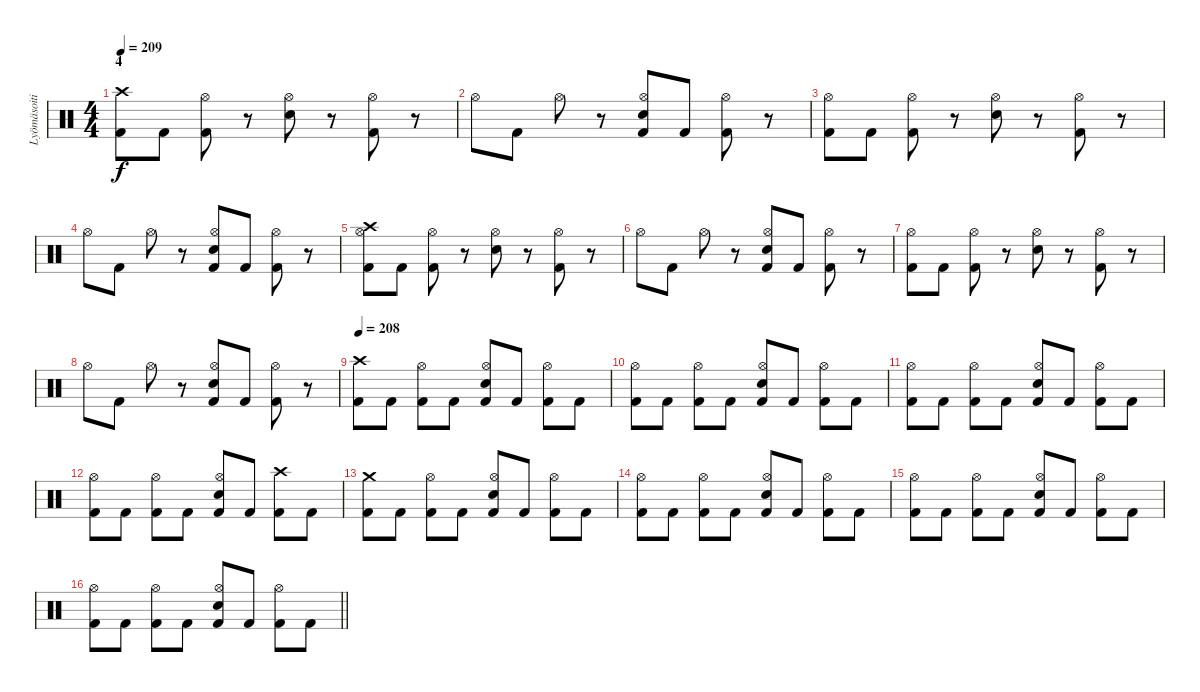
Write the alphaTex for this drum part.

\track ("Lyömäsoitin" "Lyömäsoiti") {instrument percussion}
\staff {score}
\articulation defaults
\ts (4 4)
\section ("" "4")
\tempo 209
\clef neutral
\ks c
("Crash high (hit)" "Kick (hit) 2").8{dy f} "Kick (hit) 2".8 ("Hi-Hat (open)" "Kick (hit) 2").8 r.8 ("Hi-Hat (open)" "Snare (hit) 2").8 r.8 ("Hi-Hat (open)" "Kick (hit) 2").8 r.8 |
"Hi-Hat (open)".8 "Kick (hit) 2".8 "Hi-Hat (open)".8 r.8 ("Hi-Hat (open)" "Snare (hit) 2" "Kick (hit) 2").8 "Kick (hit) 2".8 ("Hi-Hat (open)" "Kick (hit) 2").8 r.8 |
("Hi-Hat (open)" "Kick (hit) 2").8 "Kick (hit) 2".8 ("Hi-Hat (open)" "Kick (hit) 2").8 r.8 ("Hi-Hat (open)" "Snare (hit) 2").8 r.8 ("Hi-Hat (open)" "Kick (hit) 2").8 r.8 |
"Hi-Hat (open)".8 "Kick (hit) 2".8 "Hi-Hat (open)".8 r.8 ("Hi-Hat (open)" "Snare (hit) 2" "Kick (hit) 2").8 "Kick (hit) 2".8 ("Hi-Hat (open)" "Kick (hit) 2").8 r.8 |
("Crash high (hit)" "Hi-Hat (open)" "Kick (hit) 2").8 "Kick (hit) 2".8 ("Hi-Hat (open)" "Kick (hit) 2").8 r.8 ("Hi-Hat (open)" "Snare (hit) 2").8 r.8 ("Hi-Hat (open)" "Kick (hit) 2").8 r.8 |
"Hi-Hat (open)".8 "Kick (hit) 2".8 "Hi-Hat (open)".8 r.8 ("Hi-Hat (open)" "Snare (hit) 2" "Kick (hit) 2").8 "Kick (hit) 2".8 ("Hi-Hat (open)" "Kick (hit) 2").8 r.8 |
("Hi-Hat (open)" "Kick (hit) 2").8 "Kick (hit) 2".8 ("Hi-Hat (open)" "Kick (hit) 2").8 r.8 ("Hi-Hat (open)" "Snare (hit) 2").8 r.8 ("Hi-Hat (open)" "Kick (hit) 2").8 r.8 |
"Hi-Hat (open)".8 "Kick (hit) 2".8 "Hi-Hat (open)".8 r.8 ("Hi-Hat (open)" "Snare (hit) 2" "Kick (hit) 2").8 "Kick (hit) 2".8 ("Hi-Hat (open)" "Kick (hit) 2").8 r.8 |
\tempo 208
("Crash high (hit)" "Kick (hit) 2").8 "Kick (hit) 2".8 ("Hi-Hat (open)" "Kick (hit) 2").8 "Kick (hit) 2".8 ("Hi-Hat (open)" "Snare (hit) 2" "Kick (hit) 2").8 "Kick (hit) 2".8 ("Hi-Hat (open)" "Kick (hit) 2").8 "Kick (hit) 2".8 |
("Hi-Hat (open)" "Kick (hit) 2").8 "Kick (hit) 2".8 ("Hi-Hat (open)" "Kick (hit) 2").8 "Kick (hit) 2".8 ("Hi-Hat (open)" "Snare (hit) 2" "Kick (hit) 2").8 "Kick (hit) 2".8 ("Hi-Hat (open)" "Kick (hit) 2").8 "Kick (hit) 2".8 |
("Hi-Hat (open)" "Kick (hit) 2").8 "Kick (hit) 2".8 ("Hi-Hat (open)" "Kick (hit) 2").8 "Kick (hit) 2".8 ("Hi-Hat (open)" "Snare (hit) 2" "Kick (hit) 2").8 "Kick (hit) 2".8 ("Hi-Hat (open)" "Kick (hit) 2").8 "Kick (hit) 2".8 |
("Hi-Hat (open)" "Kick (hit) 2").8 "Kick (hit) 2".8 ("Hi-Hat (open)" "Kick (hit) 2").8 "Kick (hit) 2".8 ("Hi-Hat (open)" "Snare (hit) 2" "Kick (hit) 2").8 "Kick (hit) 2".8 ("Crash high (hit)" "Kick (hit) 2").8 "Kick (hit) 2".8 |
("Crash medium (hit)" "Kick (hit) 2").8 "Kick (hit) 2".8 ("Hi-Hat (open)" "Kick (hit) 2").8 "Kick (hit) 2".8 ("Hi-Hat (open)" "Snare (hit) 2" "Kick (hit) 2").8 "Kick (hit) 2".8 ("Hi-Hat (open)" "Kick (hit) 2").8 "Kick (hit) 2".8 |
("Hi-Hat (open)" "Kick (hit) 2").8 "Kick (hit) 2".8 ("Hi-Hat (open)" "Kick (hit) 2").8 "Kick (hit) 2".8 ("Hi-Hat (open)" "Snare (hit) 2" "Kick (hit) 2").8 "Kick (hit) 2".8 ("Hi-Hat (open)" "Kick (hit) 2").8 "Kick (hit) 2".8 |
("Hi-Hat (open)" "Kick (hit) 2").8 "Kick (hit) 2".8 ("Hi-Hat (open)" "Kick (hit) 2").8 "Kick (hit) 2".8 ("Hi-Hat (open)" "Snare (hit) 2" "Kick (hit) 2").8 "Kick (hit) 2".8 ("Hi-Hat (open)" "Kick (hit) 2").8 "Kick (hit) 2".8 |
\barLineRight lightlight
("Hi-Hat (open)" "Kick (hit) 2").8 "Kick (hit) 2".8 ("Hi-Hat (open)" "Kick (hit) 2").8 "Kick (hit) 2".8 ("Hi-Hat (open)" "Snare (hit) 2" "Kick (hit) 2").8 "Kick (hit) 2".8 ("Hi-Hat (open)" "Kick (hit) 2").8 "Kick (hit) 2".8
